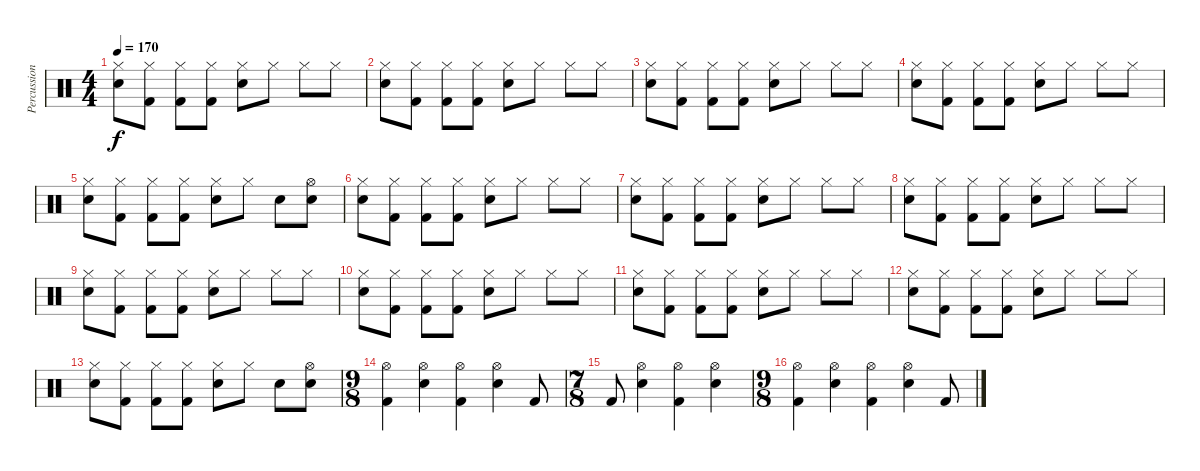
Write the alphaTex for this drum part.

\track ("Percussion" "Percussion") {instrument percussion}
\staff {score}
\articulation defaults
\ts (4 4)
\tempo 170
\clef neutral
\ks c
("Snare (hit) 2" "Hi-Hat (closed)").8{dy f} ("Kick (hit) 2" "Hi-Hat (closed)").8 ("Kick (hit) 2" "Hi-Hat (closed)").8 ("Kick (hit) 2" "Hi-Hat (closed)").8 ("Snare (hit) 2" "Hi-Hat (closed)").8 "Hi-Hat (closed)".8 "Hi-Hat (closed)".8 "Hi-Hat (closed)".8 |
("Snare (hit) 2" "Hi-Hat (closed)").8 ("Kick (hit) 2" "Hi-Hat (closed)").8 ("Kick (hit) 2" "Hi-Hat (closed)").8 ("Kick (hit) 2" "Hi-Hat (closed)").8 ("Snare (hit) 2" "Hi-Hat (closed)").8 "Hi-Hat (closed)".8 "Hi-Hat (closed)".8 "Hi-Hat (closed)".8 |
("Snare (hit) 2" "Hi-Hat (closed)").8 ("Kick (hit) 2" "Hi-Hat (closed)").8 ("Kick (hit) 2" "Hi-Hat (closed)").8 ("Kick (hit) 2" "Hi-Hat (closed)").8 ("Snare (hit) 2" "Hi-Hat (closed)").8 "Hi-Hat (closed)".8 "Hi-Hat (closed)".8 "Hi-Hat (closed)".8 |
("Snare (hit) 2" "Hi-Hat (closed)").8 ("Kick (hit) 2" "Hi-Hat (closed)").8 ("Kick (hit) 2" "Hi-Hat (closed)").8 ("Kick (hit) 2" "Hi-Hat (closed)").8 ("Snare (hit) 2" "Hi-Hat (closed)").8 "Hi-Hat (closed)".8 "Hi-Hat (closed)".8 "Hi-Hat (closed)".8 |
("Snare (hit) 2" "Hi-Hat (closed)").8 ("Kick (hit) 2" "Hi-Hat (closed)").8 ("Kick (hit) 2" "Hi-Hat (closed)").8 ("Kick (hit) 2" "Hi-Hat (closed)").8 ("Snare (hit) 2" "Hi-Hat (closed)").8 "Hi-Hat (closed)".8 "Snare (hit) 2".8 ("Snare (hit) 2" "Hi-Hat (open)").8 |
("Snare (hit) 2" "Hi-Hat (closed)").8 ("Kick (hit) 2" "Hi-Hat (closed)").8 ("Kick (hit) 2" "Hi-Hat (closed)").8 ("Kick (hit) 2" "Hi-Hat (closed)").8 ("Snare (hit) 2" "Hi-Hat (closed)").8 "Hi-Hat (closed)".8 "Hi-Hat (closed)".8 "Hi-Hat (closed)".8 |
("Snare (hit) 2" "Hi-Hat (closed)").8 ("Kick (hit) 2" "Hi-Hat (closed)").8 ("Kick (hit) 2" "Hi-Hat (closed)").8 ("Kick (hit) 2" "Hi-Hat (closed)").8 ("Snare (hit) 2" "Hi-Hat (closed)").8 "Hi-Hat (closed)".8 "Hi-Hat (closed)".8 "Hi-Hat (closed)".8 |
("Snare (hit) 2" "Hi-Hat (closed)").8 ("Kick (hit) 2" "Hi-Hat (closed)").8 ("Kick (hit) 2" "Hi-Hat (closed)").8 ("Kick (hit) 2" "Hi-Hat (closed)").8 ("Snare (hit) 2" "Hi-Hat (closed)").8 "Hi-Hat (closed)".8 "Hi-Hat (closed)".8 "Hi-Hat (closed)".8 |
("Snare (hit) 2" "Hi-Hat (closed)").8 ("Kick (hit) 2" "Hi-Hat (closed)").8 ("Kick (hit) 2" "Hi-Hat (closed)").8 ("Kick (hit) 2" "Hi-Hat (closed)").8 ("Snare (hit) 2" "Hi-Hat (closed)").8 "Hi-Hat (closed)".8 "Hi-Hat (closed)".8 "Hi-Hat (closed)".8 |
("Snare (hit) 2" "Hi-Hat (closed)").8 ("Kick (hit) 2" "Hi-Hat (closed)").8 ("Kick (hit) 2" "Hi-Hat (closed)").8 ("Kick (hit) 2" "Hi-Hat (closed)").8 ("Snare (hit) 2" "Hi-Hat (closed)").8 "Hi-Hat (closed)".8 "Hi-Hat (closed)".8 "Hi-Hat (closed)".8 |
("Snare (hit) 2" "Hi-Hat (closed)").8 ("Kick (hit) 2" "Hi-Hat (closed)").8 ("Kick (hit) 2" "Hi-Hat (closed)").8 ("Kick (hit) 2" "Hi-Hat (closed)").8 ("Snare (hit) 2" "Hi-Hat (closed)").8 "Hi-Hat (closed)".8 "Hi-Hat (closed)".8 "Hi-Hat (closed)".8 |
("Snare (hit) 2" "Hi-Hat (closed)").8 ("Kick (hit) 2" "Hi-Hat (closed)").8 ("Kick (hit) 2" "Hi-Hat (closed)").8 ("Kick (hit) 2" "Hi-Hat (closed)").8 ("Snare (hit) 2" "Hi-Hat (closed)").8 "Hi-Hat (closed)".8 "Hi-Hat (closed)".8 "Hi-Hat (closed)".8 |
("Snare (hit) 2" "Hi-Hat (closed)").8 ("Kick (hit) 2" "Hi-Hat (closed)").8 ("Kick (hit) 2" "Hi-Hat (closed)").8 ("Kick (hit) 2" "Hi-Hat (closed)").8 ("Snare (hit) 2" "Hi-Hat (closed)").8 "Hi-Hat (closed)".8 "Snare (hit) 2".8 ("Snare (hit) 2" "Hi-Hat (open)").8 |
\ts (9 8)
("Kick (hit) 2" "Hi-Hat (open)").4 ("Snare (hit) 2" "Hi-Hat (open)").4 ("Kick (hit) 2" "Hi-Hat (open)").4 ("Snare (hit) 2" "Hi-Hat (open)").4 "Kick (hit) 2".8 |
\ts (7 8)
"Kick (hit) 2".8 ("Snare (hit) 2" "Hi-Hat (open)").4 ("Kick (hit) 2" "Hi-Hat (open)").4 ("Snare (hit) 2" "Hi-Hat (open)").4 |
\ts (9 8)
("Kick (hit) 2" "Hi-Hat (open)").4 ("Snare (hit) 2" "Hi-Hat (open)").4 ("Kick (hit) 2" "Hi-Hat (open)").4 ("Snare (hit) 2" "Hi-Hat (open)").4 "Kick (hit) 2".8
